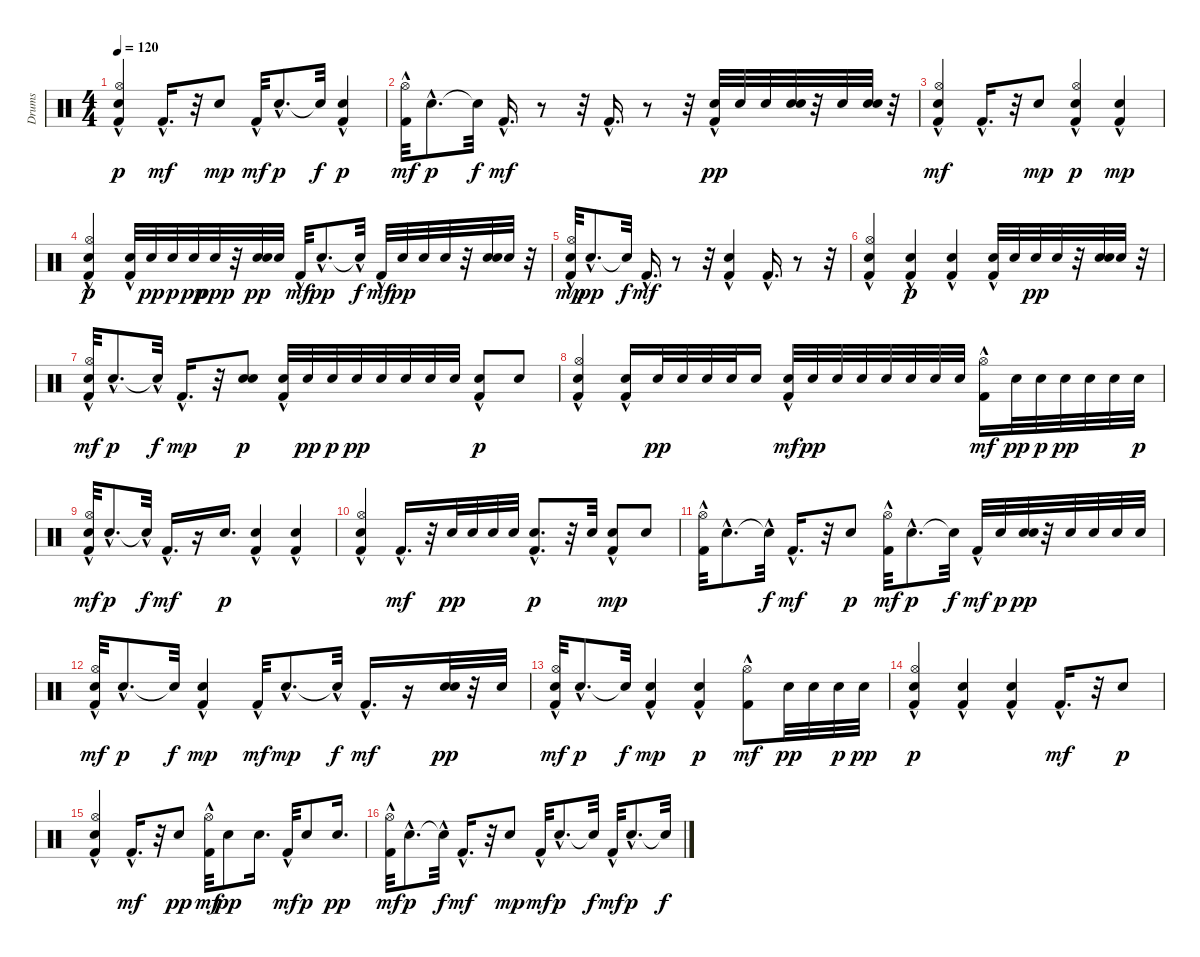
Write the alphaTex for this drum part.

\track ("Drums" "Drums") {instrument percussion}
\staff {score}
\articulation defaults
\ts (4 4)
\tempo 120
\clef neutral
\ks c
("Kick (hit) 2"{hac} "Hi-Hat (open)"{hac} "Snare (hit) 2"{hac}).4{dy p} "Kick (hit) 2"{hac}.16{d dy mf} r.32 "Snare (hit) 2".8{dy mp} "Kick (hit) 2"{hac}.32{dy mf} "Snare (hit) 2"{hac}.8{d dy p} "Snare (hit)"{t}.32{dy f} ("Kick (hit) 2"{hac} "Snare (hit) 2").4{dy p} |
("Hi-Hat (open)"{hac} "Kick (hit) 2"{hac}).32{dy mf} "Snare (hit) 2"{hac}.8{d dy p} "Snare (hit)"{t}.32{dy f} "Kick (hit) 2"{hac}.16{d dy mf} r.8 r.32 "Kick (hit) 2"{hac}.16{d} r.8 r.32 ("Kick (hit) 2"{hac} "Snare (hit) 2").32{dy pp} "Snare (hit) 2".32 "Snare (hit) 2".32 ("Snare (hit) 2" "Snare (hit) 2").32 r.32 "Snare (hit) 2".32 ("Snare (hit) 2" "Snare (hit) 2").32 r.32 |
("Snare (hit) 2"{hac} "Hi-Hat (open)" "Kick (hit) 2"{hac}).4{dy mf} "Kick (hit) 2"{hac}.16{d} r.32 "Snare (hit) 2".8{dy mp} ("Hi-Hat (open)" "Kick (hit) 2"{hac} "Snare (hit) 2").4{dy p} ("Kick (hit) 2"{hac} "Snare (hit) 2").4{dy mp} |
("Hi-Hat (open)" "Kick (hit) 2"{hac} "Snare (hit) 2").4{dy p} ("Kick (hit) 2"{hac} "Snare (hit) 2").32 "Snare (hit) 2".32{dy pp} "Snare (hit) 2".32{dy p} "Snare (hit) 2".32{dy pp} "Snare (hit) 2".32{dy ppp} r.32 ("Snare (hit) 2" "Snare (hit) 2").32{dy pp} "Snare (hit) 2".32 "Kick (hit) 2"{hac}.32{dy mf} "Snare (hit) 2"{hac}.8{d dy pp} "Snare (hit)"{hac t}.32{dy f} "Kick (hit) 2"{hac}.32{dy mf} "Snare (hit) 2".32{dy pp} "Snare (hit) 2".32 "Snare (hit) 2".32 r.32 ("Snare (hit) 2" "Snare (hit) 2").32 "Snare (hit) 2".32 r.32 |
("Snare (hit) 2" "Hi-Hat (open)"{hac} "Kick (hit) 2"{hac}).32{dy mp} "Snare (hit) 2"{hac}.8{d dy pp} "Snare (hit)"{t}.32{dy f} "Kick (hit) 2"{hac}.16{d dy mf} r.8 r.32 ("Snare (hit) 2" "Kick (hit) 2"{hac}).4 "Kick (hit) 2"{hac}.16{d} r.8 r.32 |
("Snare (hit) 2" "Hi-Hat (open)"{hac} "Kick (hit) 2"{hac}).4 ("Kick (hit) 2"{hac} "Snare (hit) 2").4{dy p} ("Kick (hit) 2"{hac} "Snare (hit) 2").4 ("Kick (hit) 2"{hac} "Snare (hit) 2").32 "Snare (hit) 2".32 "Snare (hit) 2".32{dy pp} "Snare (hit) 2".32 r.32 ("Snare (hit) 2" "Snare (hit) 2").32 "Snare (hit) 2".32 r.32 |
("Snare (hit) 2" "Hi-Hat (open)"{hac} "Kick (hit) 2"{hac}).32{dy mf} "Snare (hit) 2"{hac}.8{d dy p} "Snare (hit)"{hac t}.32{dy f} "Kick (hit) 2"{hac}.16{d dy mp} r.32 ("Snare (hit) 2" "Snare (hit) 2").8{dy p} ("Kick (hit) 2"{hac} "Snare (hit) 2").32 "Snare (hit) 2".32{dy pp} "Snare (hit) 2".32{dy p} "Snare (hit) 2".32{dy pp} "Snare (hit) 2".32 "Snare (hit) 2".32 "Snare (hit) 2".32 "Snare (hit) 2".32 ("Kick (hit) 2"{hac} "Snare (hit) 2").8{dy p} "Snare (hit) 2".8 |
("Hi-Hat (open)"{hac} "Kick (hit) 2"{hac} "Snare (hit) 2").4 ("Kick (hit) 2"{hac} "Snare (hit) 2").16 "Snare (hit) 2".32{dy pp} "Snare (hit) 2".32 "Snare (hit) 2".32 "Snare (hit) 2".32 "Snare (hit) 2".16 ("Snare (hit) 2" "Kick (hit) 2"{hac}).32{dy mf} "Snare (hit) 2".32{dy pp} "Snare (hit) 2".32 "Snare (hit) 2".32 "Snare (hit) 2".32 "Snare (hit) 2".32 "Snare (hit) 2".32 "Snare (hit) 2".32 ("Hi-Hat (open)" "Kick (hit) 2"{hac}).16{dy mf} "Snare (hit) 2".32{dy pp} "Snare (hit) 2".32{dy p} "Snare (hit) 2".32{dy pp} "Snare (hit) 2".32 "Snare (hit) 2".32 "Snare (hit) 2".32{dy p} |
("Snare (hit) 2" "Hi-Hat (open)"{hac} "Kick (hit) 2"{hac}).32{dy mf} "Snare (hit) 2"{hac}.8{d dy p} "Snare (hit)"{hac t}.32{dy f} "Kick (hit) 2"{hac}.16{d dy mf} r.16 "Snare (hit) 2".16{d dy p} ("Kick (hit) 2"{hac} "Snare (hit) 2").4 ("Kick (hit) 2"{hac} "Snare (hit) 2").4 |
("Hi-Hat (open)"{hac} "Kick (hit) 2"{hac} "Snare (hit) 2"{hac}).4 "Kick (hit) 2"{hac}.16{d dy mf} r.32 "Snare (hit) 2".32{dy pp} "Snare (hit) 2".32 "Snare (hit) 2".32 "Snare (hit) 2".32 ("Kick (hit) 2"{hac} "Snare (hit) 2"{hac}).8{d dy p} r.32 "Snare (hit) 2".32 ("Kick (hit) 2"{hac} "Snare (hit) 2").8{dy mp} "Snare (hit) 2".8 |
("Hi-Hat (open)" "Kick (hit) 2"{hac}).32 "Snare (hit) 2"{hac}.8{d} "Snare (hit)"{hac t}.32{dy f} "Kick (hit) 2"{hac}.16{d dy mf} r.32 "Snare (hit) 2".8{dy p} ("Hi-Hat (open)" "Kick (hit) 2"{hac}).32{dy mf} "Snare (hit) 2"{hac}.8{d dy p} "Snare (hit)"{t}.32{dy f} "Kick (hit) 2"{hac}.32{dy mf} "Snare (hit) 2".32{dy p} ("Snare (hit) 2" "Snare (hit) 2").32{dy pp} r.32 "Snare (hit) 2".32 "Snare (hit) 2".32 "Snare (hit) 2".32 "Snare (hit) 2".32 |
("Snare (hit) 2" "Hi-Hat (open)" "Kick (hit) 2"{hac}).32{dy mf} "Snare (hit) 2"{hac}.8{d dy p} "Snare (hit)"{t}.32{dy f} ("Kick (hit) 2"{hac} "Snare (hit) 2").4{dy mp} "Kick (hit) 2"{hac}.32{dy mf} "Snare (hit) 2"{hac}.8{d dy mp} "Snare (hit)"{hac t}.32{dy f} "Kick (hit) 2"{hac}.16{d dy mf} r.16 ("Snare (hit) 2" "Snare (hit) 2").32{dy pp} r.32 "Snare (hit) 2".32 |
("Snare (hit) 2" "Hi-Hat (open)"{hac} "Kick (hit) 2"{hac}).32{dy mf} "Snare (hit) 2"{hac}.8{d dy p} "Snare (hit)"{t}.32{dy f} ("Kick (hit) 2"{hac} "Snare (hit) 2").4{dy mp} ("Kick (hit) 2"{hac} "Snare (hit) 2"{hac}).4{dy p} ("Hi-Hat (open)" "Kick (hit) 2"{hac}).8{dy mf} "Snare (hit) 2".32{dy pp} "Snare (hit) 2".32 "Snare (hit) 2".32{dy p} "Snare (hit) 2".32{dy pp} |
("Hi-Hat (open)"{hac} "Kick (hit) 2"{hac} "Snare (hit) 2").4{dy p} ("Kick (hit) 2"{hac} "Snare (hit) 2").4 ("Kick (hit) 2"{hac} "Snare (hit) 2"{hac}).4 "Kick (hit) 2"{hac}.16{d dy mf} r.32 "Snare (hit) 2".8{dy p} |
("Hi-Hat (open)" "Kick (hit) 2"{hac} "Snare (hit) 2"{hac}).4 "Kick (hit) 2"{hac}.16{d dy mf} r.32 "Snare (hit) 2".8{dy pp} ("Hi-Hat (open)" "Kick (hit) 2"{hac}).32{dy mf} "Snare (hit) 2".8{dy pp} "Snare (hit) 2".16{d} "Kick (hit) 2"{hac}.32{dy mf} "Snare (hit) 2".8{dy p} "Snare (hit) 2".16{d dy pp} |
("Hi-Hat (open)" "Kick (hit) 2"{hac}).32{dy mf} "Snare (hit) 2"{hac}.8{d dy p} "Snare (hit)"{hac t}.32{dy f} "Kick (hit) 2"{hac}.16{d dy mf} r.32 "Snare (hit) 2".8{dy mp} "Kick (hit) 2"{hac}.32{dy mf} "Snare (hit) 2"{hac}.8{d dy p} "Snare (hit)"{t}.32{dy f} "Kick (hit) 2"{hac}.32{dy mf} "Snare (hit) 2"{hac}.8{d dy p} "Snare (hit)"{t}.32{dy f}
